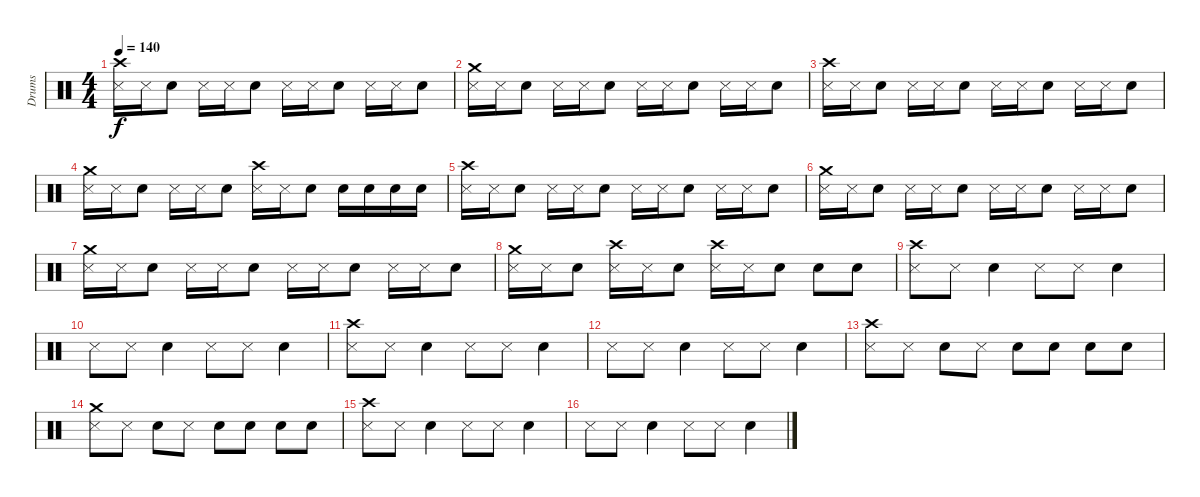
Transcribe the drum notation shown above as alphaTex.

\track ("Drums" "Drums") {instrument percussion}
\staff {score}
\articulation defaults
\ts (4 4)
\tempo 140
\clef neutral
\ks c
("Crash high (hit)" "Metronome (hit)").16{dy f} "Metronome (hit)".16 "Electric Snare (hit)".8 "Metronome (hit)".16 "Metronome (hit)".16 "Electric Snare (hit)".8 "Metronome (hit)".16 "Metronome (hit)".16 "Electric Snare (hit)".8 "Metronome (hit)".16 "Metronome (hit)".16 "Electric Snare (hit)".8 |
("Crash medium (hit)" "Metronome (hit)").16 "Metronome (hit)".16 "Electric Snare (hit)".8 "Metronome (hit)".16 "Metronome (hit)".16 "Electric Snare (hit)".8 "Metronome (hit)".16 "Metronome (hit)".16 "Electric Snare (hit)".8 "Metronome (hit)".16 "Metronome (hit)".16 "Electric Snare (hit)".8 |
("Crash high (hit)" "Metronome (hit)").16 "Metronome (hit)".16 "Electric Snare (hit)".8 "Metronome (hit)".16 "Metronome (hit)".16 "Electric Snare (hit)".8 "Metronome (hit)".16 "Metronome (hit)".16 "Electric Snare (hit)".8 "Metronome (hit)".16 "Metronome (hit)".16 "Electric Snare (hit)".8 |
("Crash medium (hit)" "Metronome (hit)").16 "Metronome (hit)".16 "Electric Snare (hit)".8 "Metronome (hit)".16 "Metronome (hit)".16 "Electric Snare (hit)".8 ("Crash high (hit)" "Metronome (hit)").16 "Metronome (hit)".16 "Electric Snare (hit)".8 "Electric Snare (hit)".16 "Electric Snare (hit)".16 "Electric Snare (hit)".16 "Electric Snare (hit)".16 |
("Crash high (hit)" "Metronome (hit)").16 "Metronome (hit)".16 "Electric Snare (hit)".8 "Metronome (hit)".16 "Metronome (hit)".16 "Electric Snare (hit)".8 "Metronome (hit)".16 "Metronome (hit)".16 "Electric Snare (hit)".8 "Metronome (hit)".16 "Metronome (hit)".16 "Electric Snare (hit)".8 |
("Crash medium (hit)" "Metronome (hit)").16 "Metronome (hit)".16 "Electric Snare (hit)".8 "Metronome (hit)".16 "Metronome (hit)".16 "Electric Snare (hit)".8 "Metronome (hit)".16 "Metronome (hit)".16 "Electric Snare (hit)".8 "Metronome (hit)".16 "Metronome (hit)".16 "Electric Snare (hit)".8 |
("Crash medium (hit)" "Metronome (hit)").16 "Metronome (hit)".16 "Electric Snare (hit)".8 "Metronome (hit)".16 "Metronome (hit)".16 "Electric Snare (hit)".8 "Metronome (hit)".16 "Metronome (hit)".16 "Electric Snare (hit)".8 "Metronome (hit)".16 "Metronome (hit)".16 "Electric Snare (hit)".8 |
("Crash medium (hit)" "Metronome (hit)").16 "Metronome (hit)".16 "Electric Snare (hit)".8 ("Crash high (hit)" "Metronome (hit)").16 "Metronome (hit)".16 "Electric Snare (hit)".8 ("Crash high (hit)" "Metronome (hit)").16 "Metronome (hit)".16 "Electric Snare (hit)".8 "Electric Snare (hit)".8 "Electric Snare (hit)".8 |
("Crash high (hit)" "Metronome (hit)").8 "Metronome (hit)".8 "Electric Snare (hit)".4 "Metronome (hit)".8 "Metronome (hit)".8 "Electric Snare (hit)".4 |
"Metronome (hit)".8 "Metronome (hit)".8 "Electric Snare (hit)".4 "Metronome (hit)".8 "Metronome (hit)".8 "Electric Snare (hit)".4 |
("Crash high (hit)" "Metronome (hit)").8 "Metronome (hit)".8 "Electric Snare (hit)".4 "Metronome (hit)".8 "Metronome (hit)".8 "Electric Snare (hit)".4 |
"Metronome (hit)".8 "Metronome (hit)".8 "Electric Snare (hit)".4 "Metronome (hit)".8 "Metronome (hit)".8 "Electric Snare (hit)".4 |
("Crash high (hit)" "Metronome (hit)").8 "Metronome (hit)".8 "Electric Snare (hit)".8 "Metronome (hit)".8 "Electric Snare (hit)".8 "Electric Snare (hit)".8 "Electric Snare (hit)".8 "Electric Snare (hit)".8 |
("Crash medium (hit)" "Metronome (hit)").8 "Metronome (hit)".8 "Electric Snare (hit)".8 "Metronome (hit)".8 "Electric Snare (hit)".8 "Electric Snare (hit)".8 "Electric Snare (hit)".8 "Electric Snare (hit)".8 |
("Crash high (hit)" "Metronome (hit)").8 "Metronome (hit)".8 "Electric Snare (hit)".4 "Metronome (hit)".8 "Metronome (hit)".8 "Electric Snare (hit)".4 |
"Metronome (hit)".8 "Metronome (hit)".8 "Electric Snare (hit)".4 "Metronome (hit)".8 "Metronome (hit)".8 "Electric Snare (hit)".4
